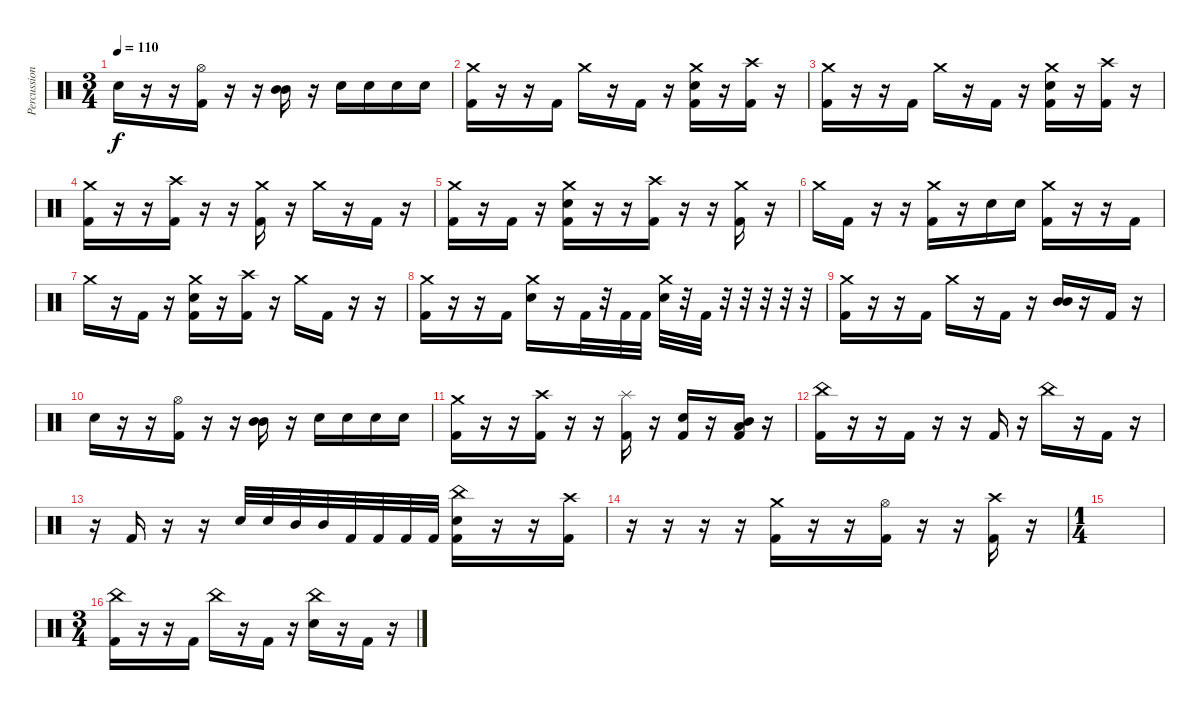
\track ("Percussion" "Percussion") {instrument percussion}
\staff {score}
\articulation defaults
\ts (3 4)
\tempo 110
\clef neutral
\ks c "Electric Snare (hit)".16{dy f}
r.16 r.16 ("Hi-Hat (open)" "Kick (hit) 2").16 r.16 r.16 ("Mid Tom (hit)" "Mid Tom (hit)").16 r.16 "Electric Snare (hit)".16 "Electric Snare (hit)".16 "Electric Snare (hit)".16 "Electric Snare (hit)".16 |
("Crash medium (hit)" "Kick (hit) 2").16 r.16 r.16 "Kick (hit) 2".16 "Crash medium (hit)".16 r.16 "Kick (hit) 2".16 r.16 ("Crash medium (hit)" "Electric Snare (hit)" "Kick (hit) 2").16 r.16 ("Crash high (hit)" "Kick (hit) 2").16 r.16 |
("Crash medium (hit)" "Kick (hit) 2").16 r.16 r.16 "Kick (hit) 2".16 "Crash medium (hit)".16 r.16 "Kick (hit) 2".16 r.16 ("Crash medium (hit)" "Electric Snare (hit)" "Kick (hit) 2").16 r.16 ("Crash high (hit)" "Kick (hit) 2").16 r.16 |
("Crash medium (hit)" "Kick (hit) 2").16 r.16 r.16 ("Crash high (hit)" "Kick (hit) 2").16 r.16 r.16 ("Crash medium (hit)" "Kick (hit) 2").16 r.16 "Crash medium (hit)".16 r.16 "Kick (hit) 2".16 r.16 |
("Crash medium (hit)" "Kick (hit) 2").16 r.16 "Kick (hit) 2".16 r.16 ("Crash medium (hit)" "Electric Snare (hit)" "Kick (hit) 2").16 r.16 r.16 ("Crash high (hit)" "Kick (hit) 2").16 r.16 r.16 ("Crash medium (hit)" "Kick (hit) 2").16 r.16 |
"Crash medium (hit)".16 "Kick (hit) 2".16 r.16 r.16 ("Crash medium (hit)" "Kick (hit) 2").16 r.16 "Electric Snare (hit)".16 "Electric Snare (hit)".16 ("Crash medium (hit)" "Kick (hit) 2").16 r.16 r.16 "Kick (hit) 2".16 |
"Crash medium (hit)".16 r.16 "Kick (hit) 2".16 r.16 ("Crash medium (hit)" "Electric Snare (hit)" "Kick (hit) 2").16 r.16 ("Crash high (hit)" "Kick (hit) 2").16 r.16 "Crash medium (hit)".16 "Kick (hit) 2".16 r.16 r.16 |
("Crash medium (hit)" "Kick (hit) 2").16 r.16 r.16 "Kick (hit) 2".16 ("Crash medium (hit)" "Electric Snare (hit)").16 r.16 "Kick (hit) 2".32 r.32 "Kick (hit) 2".32 "Kick (hit) 2".32 ("Crash medium (hit)" "Electric Snare (hit)").32 r.32 "Kick (hit) 2".32 r.32 r.32 r.32 r.32 r.32 |
("Crash medium (hit)" "Kick (hit) 2").16 r.16 r.16 "Kick (hit) 2".16 "Crash medium (hit)".16 r.16 "Kick (hit) 2".16 r.16 ("Mid Tom (hit)" "Mid Tom (hit)").16 r.16 "Kick (hit) 2".16 r.16 |
"Electric Snare (hit)".16 r.16 r.16 ("Hi-Hat (open)" "Kick (hit) 2").16 r.16 r.16 ("Mid Tom (hit)" "Mid Tom (hit)").16 r.16 "Electric Snare (hit)".16 "Electric Snare (hit)".16 "Electric Snare (hit)".16 "Electric Snare (hit)".16 |
("Crash medium (hit)" "Kick (hit) 2").16 r.16 r.16 ("Crash high (hit)" "Kick (hit) 2").16 r.16 r.16 ("Splash (hit)" "Kick (hit) 2").16 r.16 ("Electric Snare (hit)" "Kick (hit) 2").16 r.16 ("Mid Tom (hit)" "Low Tom (hit)" "Kick (hit) 2").16 r.16 |
("China (hit)" "Kick (hit) 2").16 r.16 r.16 "Kick (hit) 2".16 r.16 r.16 "Kick (hit) 2".16 r.16 "China (hit)".16 r.16 "Kick (hit) 2".16 r.16 |
r.16 "Kick (hit) 2".16 r.16 r.16 "Electric Snare (hit)".32 "Electric Snare (hit)".32 "Mid Tom (hit)".32 "Mid Tom (hit)".32 "Kick (hit) 2".32 "Kick (hit) 2".32 "Kick (hit) 2".32 "Kick (hit) 2".32 ("China (hit)" "Electric Snare (hit)" "Kick (hit) 2").16 r.16 r.16 ("Crash high (hit)" "Kick (hit) 2").16 |
r.16 r.16 r.16 r.16 ("Crash medium (hit)" "Kick (hit) 2").16 r.16 r.16 ("Hi-Hat (open)" "Kick (hit) 2").16 r.16 r.16 ("Crash high (hit)" "Kick (hit) 2").16 r.16 |
\ts (1 4)
|
\ts (3 4)
("China (hit)" "Kick (hit) 2").16 r.16 r.16 "Kick (hit) 2".16 "China (hit)".16 r.16 "Kick (hit) 2".16 r.16 ("China (hit)" "Electric Snare (hit)").16 r.16 "Kick (hit) 2".16 r.16
